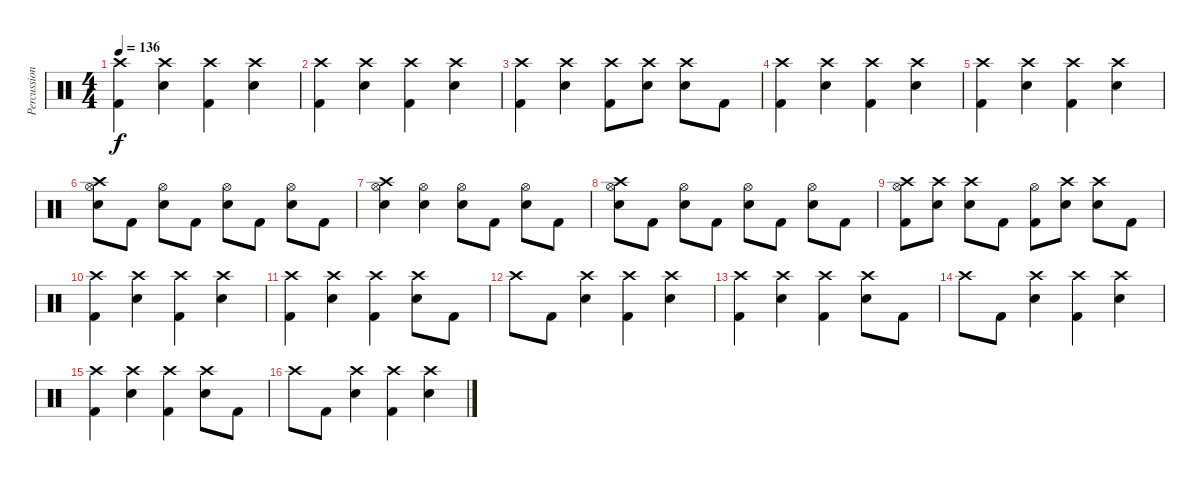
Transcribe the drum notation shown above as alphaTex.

\track ("Percussion" "Percussion") {instrument percussion}
\staff {score}
\articulation defaults
\ts (4 4)
\tempo 136
\clef neutral
\ks c
("Kick (hit) 2" "Crash high (hit)").4{dy f} ("Snare (hit) 2" "Crash high (hit)").4 ("Kick (hit) 2" "Crash high (hit)").4 ("Snare (hit) 2" "Crash high (hit)").4 |
("Kick (hit) 2" "Crash high (hit)").4 ("Snare (hit) 2" "Crash high (hit)").4 ("Kick (hit) 2" "Crash high (hit)").4 ("Snare (hit) 2" "Crash high (hit)").4 |
("Kick (hit) 2" "Crash high (hit)").4 ("Snare (hit) 2" "Crash high (hit)").4 ("Kick (hit) 2" "Crash high (hit)").8 ("Snare (hit) 2" "Crash high (hit)").8 ("Snare (hit) 2" "Crash high (hit)").8 "Kick (hit) 2".8 |
("Kick (hit) 2" "Crash high (hit)").4 ("Snare (hit) 2" "Crash high (hit)").4 ("Kick (hit) 2" "Crash high (hit)").4 ("Snare (hit) 2" "Crash high (hit)").4 |
("Kick (hit) 2" "Crash high (hit)").4 ("Snare (hit) 2" "Crash high (hit)").4 ("Kick (hit) 2" "Crash high (hit)").4 ("Snare (hit) 2" "Crash high (hit)").4 |
("Snare (hit) 2" "Hi-Hat (open)" "Crash high (hit)").8 "Kick (hit) 2".8 ("Snare (hit) 2" "Hi-Hat (open)").8 "Kick (hit) 2".8 ("Snare (hit) 2" "Hi-Hat (open)").8 "Kick (hit) 2".8 ("Snare (hit) 2" "Hi-Hat (open)").8 "Kick (hit) 2".8 |
("Snare (hit) 2" "Hi-Hat (open)" "Crash high (hit)").4 ("Snare (hit) 2" "Hi-Hat (open)").4 ("Snare (hit) 2" "Hi-Hat (open)").8 "Kick (hit) 2".8 ("Snare (hit) 2" "Hi-Hat (open)").8 "Kick (hit) 2".8 |
("Snare (hit) 2" "Hi-Hat (open)" "Crash high (hit)").8 "Kick (hit) 2".8 ("Snare (hit) 2" "Hi-Hat (open)").8 "Kick (hit) 2".8 ("Snare (hit) 2" "Hi-Hat (open)").8 "Kick (hit) 2".8 ("Snare (hit) 2" "Hi-Hat (open)").8 "Kick (hit) 2".8 |
("Kick (hit) 2" "Hi-Hat (open)" "Crash high (hit)").8 ("Snare (hit) 2" "Crash high (hit)").8 ("Snare (hit) 2" "Crash high (hit)").8 "Kick (hit) 2".8 ("Kick (hit) 2" "Hi-Hat (open)").8 ("Snare (hit) 2" "Crash high (hit)").8 ("Snare (hit) 2" "Crash high (hit)").8 "Kick (hit) 2".8 |
("Kick (hit) 2" "Crash high (hit)").4 ("Snare (hit) 2" "Crash high (hit)").4 ("Kick (hit) 2" "Crash high (hit)").4 ("Snare (hit) 2" "Crash high (hit)").4 |
("Kick (hit) 2" "Crash high (hit)").4 ("Snare (hit) 2" "Crash high (hit)").4 ("Kick (hit) 2" "Crash high (hit)").4 ("Snare (hit) 2" "Crash high (hit)").8 "Kick (hit) 2".8 |
"Crash high (hit)".8 "Kick (hit) 2".8 ("Snare (hit) 2" "Crash high (hit)").4 ("Kick (hit) 2" "Crash high (hit)").4 ("Snare (hit) 2" "Crash high (hit)").4 |
("Kick (hit) 2" "Crash high (hit)").4 ("Snare (hit) 2" "Crash high (hit)").4 ("Kick (hit) 2" "Crash high (hit)").4 ("Snare (hit) 2" "Crash high (hit)").8 "Kick (hit) 2".8 |
"Crash high (hit)".8 "Kick (hit) 2".8 ("Snare (hit) 2" "Crash high (hit)").4 ("Kick (hit) 2" "Crash high (hit)").4 ("Snare (hit) 2" "Crash high (hit)").4 |
("Kick (hit) 2" "Crash high (hit)").4 ("Snare (hit) 2" "Crash high (hit)").4 ("Kick (hit) 2" "Crash high (hit)").4 ("Snare (hit) 2" "Crash high (hit)").8 "Kick (hit) 2".8 |
"Crash high (hit)".8 "Kick (hit) 2".8 ("Snare (hit) 2" "Crash high (hit)").4 ("Kick (hit) 2" "Crash high (hit)").4 ("Snare (hit) 2" "Crash high (hit)").4
